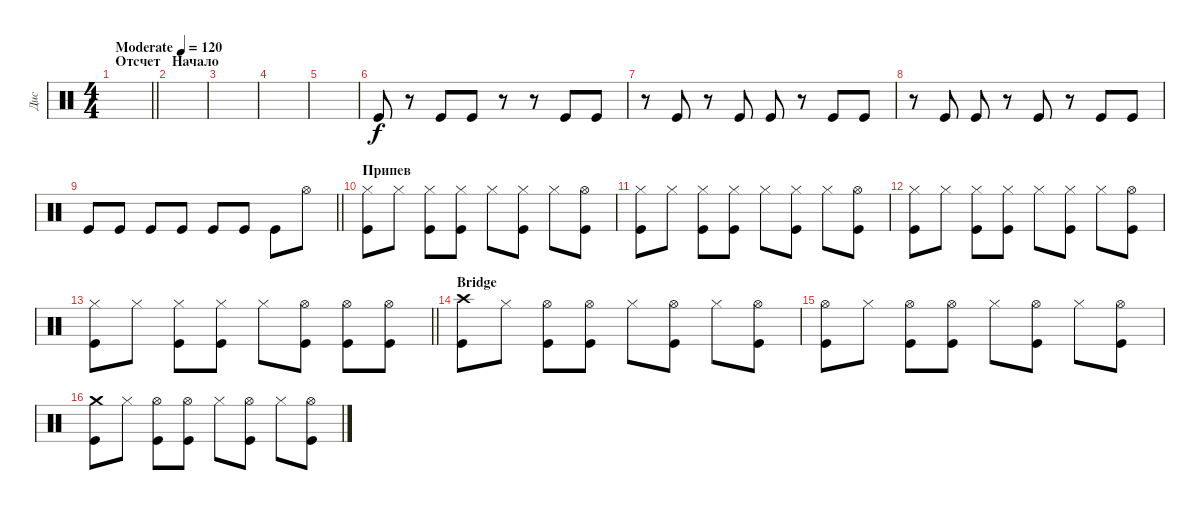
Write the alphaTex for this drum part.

\track ("Дис  " "Дис  ") {instrument percussion}
\staff {score}
\articulation defaults
\ts (4 4)
\section ("" "Отсчет")
\tempo (120 "Moderate")
\clef neutral
\barLineRight lightlight
\ks c
|
\section ("" "Начало")
|
|
|
|
"Kick (hit)".8 r.8 "Kick (hit)".8 "Kick (hit)".8 r.8 r.8 "Kick (hit)".8 "Kick (hit)".8 |
r.8 "Kick (hit)".8 r.8 "Kick (hit)".8 "Kick (hit)".8 r.8 "Kick (hit)".8 "Kick (hit)".8 |
r.8 "Kick (hit)".8 "Kick (hit)".8 r.8 "Kick (hit)".8 r.8 "Kick (hit)".8 "Kick (hit)".8 |
\barLineRight lightlight "Kick (hit)".8 "Kick (hit)".8 "Kick (hit)".8 "Kick (hit)".8 "Kick (hit)".8 "Kick (hit)".8 "Kick (hit)".8 "Hi-Hat (open)".8
|
\section ("" "Припев")
("Hi-Hat (closed)" "Kick (hit)").8 "Hi-Hat (closed)".8 ("Hi-Hat (closed)" "Kick (hit)").8 ("Hi-Hat (closed)" "Kick (hit)").8 "Hi-Hat (closed)".8 ("Hi-Hat (closed)" "Kick (hit)").8 "Hi-Hat (closed)".8 ("Hi-Hat (open)" "Kick (hit)").8 |
("Hi-Hat (closed)" "Kick (hit)").8 "Hi-Hat (closed)".8 ("Hi-Hat (closed)" "Kick (hit)").8 ("Hi-Hat (closed)" "Kick (hit)").8 "Hi-Hat (closed)".8 ("Hi-Hat (closed)" "Kick (hit)").8 "Hi-Hat (closed)".8 ("Hi-Hat (open)" "Kick (hit)").8 |
("Hi-Hat (closed)" "Kick (hit)").8 "Hi-Hat (closed)".8 ("Hi-Hat (closed)" "Kick (hit)").8 ("Hi-Hat (closed)" "Kick (hit)").8 "Hi-Hat (closed)".8 ("Hi-Hat (closed)" "Kick (hit)").8 "Hi-Hat (closed)".8 ("Hi-Hat (open)" "Kick (hit)").8 |
\barLineRight lightlight
("Hi-Hat (closed)" "Kick (hit)").8 "Hi-Hat (closed)".8 ("Hi-Hat (closed)" "Kick (hit)").8 ("Hi-Hat (closed)" "Kick (hit)").8 "Hi-Hat (closed)".8 ("Hi-Hat (open)" "Kick (hit)").8 ("Hi-Hat (open)" "Kick (hit)").8 ("Hi-Hat (open)" "Kick (hit)").8 |
\section ("" "Bridge")
("Crash high (hit)" "Kick (hit)").8 "Hi-Hat (closed)".8 ("Hi-Hat (open)" "Kick (hit)").8 ("Hi-Hat (open)" "Kick (hit)").8 "Hi-Hat (closed)".8 ("Hi-Hat (open)" "Kick (hit)").8 "Hi-Hat (closed)".8 ("Hi-Hat (open)" "Kick (hit)").8 |
("Hi-Hat (open)" "Kick (hit)").8 "Hi-Hat (closed)".8 ("Hi-Hat (open)" "Kick (hit)").8 ("Hi-Hat (open)" "Kick (hit)").8 "Hi-Hat (closed)".8 ("Hi-Hat (open)" "Kick (hit)").8 "Hi-Hat (closed)".8 ("Hi-Hat (open)" "Kick (hit)").8 |
("Crash medium (hit)" "Kick (hit)").8 "Hi-Hat (closed)".8 ("Hi-Hat (open)" "Kick (hit)").8 ("Hi-Hat (open)" "Kick (hit)").8 "Hi-Hat (closed)".8 ("Hi-Hat (open)" "Kick (hit)").8 "Hi-Hat (closed)".8 ("Hi-Hat (open)" "Kick (hit)").8
